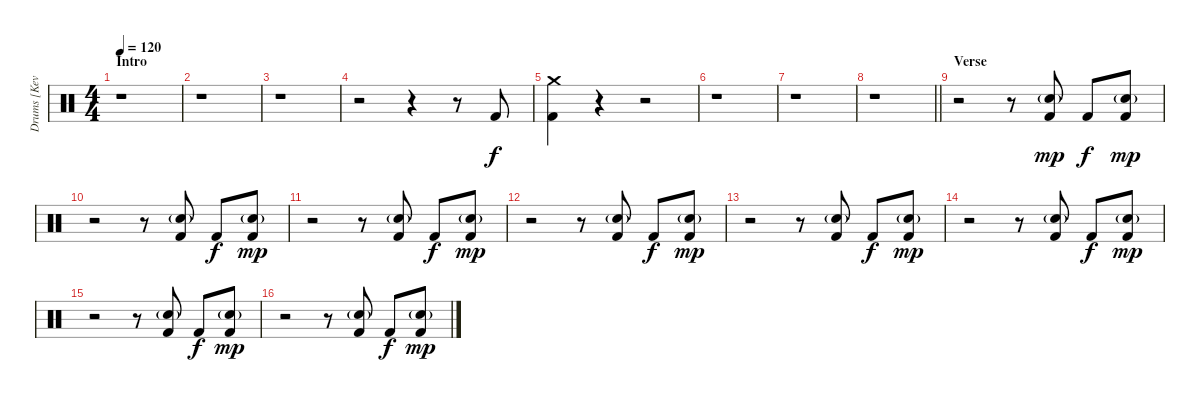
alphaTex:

\track ("Drums [Kevin Haskins]" "Drums [Kev") {instrument percussion}
\staff {score}
\articulation defaults
\ts (4 4)
\section ("" "Intro")
\tempo 120
\clef neutral
\ks c
r.1{dy f} |
r.1 |
r.1 |
r.2 r.4 r.8 "Kick (hit) 2".8{volume 13} |
("Crash medium (hit)" "Kick (hit) 2").4 r.4 r.2 |
r.1 |
r.1 |
\barLineRight lightlight
r.1 |
\section ("" "Verse")
r.2{volume 12} r.8 ("Snare (hit) 2"{g} "Kick (hit) 2").8{dy mp} "Kick (hit) 2".8{dy f} ("Snare (hit) 2"{g} "Kick (hit) 2").8{dy mp} |
r.2 r.8 ("Snare (hit) 2"{g} "Kick (hit) 2").8 "Kick (hit) 2".8{dy f} ("Snare (hit) 2"{g} "Kick (hit) 2").8{dy mp} |
r.2 r.8 ("Snare (hit) 2"{g} "Kick (hit) 2").8 "Kick (hit) 2".8{dy f} ("Snare (hit) 2"{g} "Kick (hit) 2").8{dy mp} |
r.2 r.8 ("Snare (hit) 2"{g} "Kick (hit) 2").8 "Kick (hit) 2".8{dy f} ("Snare (hit) 2"{g} "Kick (hit) 2").8{dy mp} |
r.2 r.8 ("Snare (hit) 2"{g} "Kick (hit) 2").8 "Kick (hit) 2".8{dy f} ("Snare (hit) 2"{g} "Kick (hit) 2").8{dy mp} |
r.2 r.8 ("Snare (hit) 2"{g} "Kick (hit) 2").8 "Kick (hit) 2".8{dy f} ("Snare (hit) 2"{g} "Kick (hit) 2").8{dy mp} |
r.2 r.8 ("Snare (hit) 2"{g} "Kick (hit) 2").8 "Kick (hit) 2".8{dy f} ("Snare (hit) 2"{g} "Kick (hit) 2").8{dy mp} |
r.2 r.8 ("Snare (hit) 2"{g} "Kick (hit) 2").8 "Kick (hit) 2".8{dy f} ("Snare (hit) 2"{g} "Kick (hit) 2").8{dy mp}
